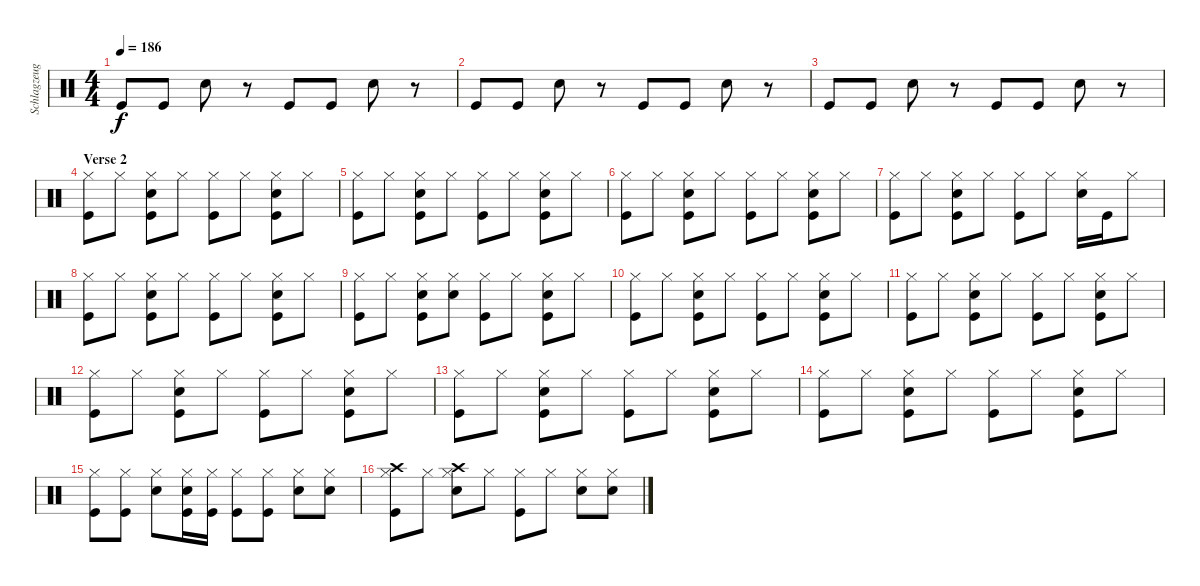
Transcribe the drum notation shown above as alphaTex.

\track ("Schlagzeug - Bela B." "Schlagzeug") {instrument percussion}
\staff {score}
\articulation defaults
\ts (4 4)
\tempo 186
\clef neutral
\ks c "Kick (hit)".8{dy f} "Kick (hit)".8 "Snare (hit) 2".8
r.8 "Kick (hit)".8 "Kick (hit)".8 "Snare (hit) 2".8 r.8 |
"Kick (hit)".8 "Kick (hit)".8 "Snare (hit) 2".8 r.8 "Kick (hit)".8 "Kick (hit)".8 "Snare (hit) 2".8 r.8 |
"Kick (hit)".8 "Kick (hit)".8 "Snare (hit) 2".8 r.8 "Kick (hit)".8 "Kick (hit)".8 "Snare (hit) 2".8 r.8 |
\section ("" "Verse 2")
("Kick (hit)" "Hi-Hat (closed)").8 "Hi-Hat (closed)".8 ("Electric Snare (hit)" "Hi-Hat (closed)" "Kick (hit)").8 "Hi-Hat (closed)".8 ("Hi-Hat (closed)" "Kick (hit)").8 "Hi-Hat (closed)".8 ("Hi-Hat (closed)" "Electric Snare (hit)" "Kick (hit)").8 "Hi-Hat (closed)".8 |
("Hi-Hat (closed)" "Kick (hit)").8 "Hi-Hat (closed)".8 ("Hi-Hat (closed)" "Electric Snare (hit)" "Kick (hit)").8 "Hi-Hat (closed)".8 ("Hi-Hat (closed)" "Kick (hit)").8 "Hi-Hat (closed)".8 ("Electric Snare (hit)" "Hi-Hat (closed)" "Kick (hit)").8 "Hi-Hat (closed)".8 |
("Hi-Hat (closed)" "Kick (hit)").8 "Hi-Hat (closed)".8 ("Hi-Hat (closed)" "Electric Snare (hit)" "Kick (hit)").8 "Hi-Hat (closed)".8 ("Kick (hit)" "Hi-Hat (closed)").8 "Hi-Hat (closed)".8 ("Hi-Hat (closed)" "Electric Snare (hit)" "Kick (hit)").8 "Hi-Hat (closed)".8 |
("Kick (hit)" "Hi-Hat (closed)").8 "Hi-Hat (closed)".8 ("Electric Snare (hit)" "Hi-Hat (closed)" "Kick (hit)").8 "Hi-Hat (closed)".8 ("Hi-Hat (closed)" "Kick (hit)").8 "Hi-Hat (closed)".8 ("Electric Snare (hit)" "Hi-Hat (closed)").16 "Kick (hit)".16 "Hi-Hat (closed)".8 |
("Kick (hit)" "Hi-Hat (closed)").8 "Hi-Hat (closed)".8 ("Electric Snare (hit)" "Hi-Hat (closed)" "Kick (hit)").8 "Hi-Hat (closed)".8 ("Kick (hit)" "Hi-Hat (closed)").8 "Hi-Hat (closed)".8 ("Electric Snare (hit)" "Hi-Hat (closed)" "Kick (hit)").8 "Hi-Hat (closed)".8 |
("Kick (hit)" "Hi-Hat (closed)").8 "Hi-Hat (closed)".8 ("Electric Snare (hit)" "Hi-Hat (closed)" "Kick (hit)").8 ("Electric Snare (hit)" "Hi-Hat (closed)").8 ("Kick (hit)" "Hi-Hat (closed)").8 "Hi-Hat (closed)".8 ("Electric Snare (hit)" "Hi-Hat (closed)" "Kick (hit)").8 "Hi-Hat (closed)".8 |
("Kick (hit)" "Hi-Hat (closed)").8 "Hi-Hat (closed)".8 ("Electric Snare (hit)" "Hi-Hat (closed)" "Kick (hit)").8 "Hi-Hat (closed)".8 ("Hi-Hat (closed)" "Kick (hit)").8 "Hi-Hat (closed)".8 ("Electric Snare (hit)" "Hi-Hat (closed)" "Kick (hit)").8 "Hi-Hat (closed)".8 |
("Hi-Hat (closed)" "Kick (hit)").8 "Hi-Hat (closed)".8 ("Hi-Hat (closed)" "Electric Snare (hit)" "Kick (hit)").8 "Hi-Hat (closed)".8 ("Kick (hit)" "Hi-Hat (closed)").8 "Hi-Hat (closed)".8 ("Electric Snare (hit)" "Hi-Hat (closed)" "Kick (hit)").8 "Hi-Hat (closed)".8 |
("Hi-Hat (closed)" "Kick (hit)").8 "Hi-Hat (closed)".8 ("Hi-Hat (closed)" "Electric Snare (hit)" "Kick (hit)").8 "Hi-Hat (closed)".8 ("Kick (hit)" "Hi-Hat (closed)").8 "Hi-Hat (closed)".8 ("Hi-Hat (closed)" "Electric Snare (hit)" "Kick (hit)").8 "Hi-Hat (closed)".8 |
("Kick (hit)" "Hi-Hat (closed)").8 "Hi-Hat (closed)".8 ("Electric Snare (hit)" "Hi-Hat (closed)" "Kick (hit)").8 "Hi-Hat (closed)".8 ("Hi-Hat (closed)" "Kick (hit)").8 "Hi-Hat (closed)".8 ("Electric Snare (hit)" "Hi-Hat (closed)" "Kick (hit)").8 "Hi-Hat (closed)".8 |
("Kick (hit)" "Hi-Hat (closed)").8 "Hi-Hat (closed)".8 ("Hi-Hat (closed)" "Electric Snare (hit)" "Kick (hit)").8 "Hi-Hat (closed)".8 ("Kick (hit)" "Hi-Hat (closed)").8 "Hi-Hat (closed)".8 ("Hi-Hat (closed)" "Electric Snare (hit)" "Kick (hit)").8 "Hi-Hat (closed)".8 |
("Hi-Hat (closed)" "Kick (hit)").8 ("Kick (hit)" "Hi-Hat (closed)").8 ("Electric Snare (hit)" "Hi-Hat (closed)").8 ("Electric Snare (hit)" "Kick (hit)" "Hi-Hat (closed)").16 ("Kick (hit)" "Hi-Hat (closed)").16 ("Kick (hit)" "Hi-Hat (closed)").8 ("Hi-Hat (closed)" "Kick (hit)").8 ("Hi-Hat (closed)" "Electric Snare (hit)").8 ("Electric Snare (hit)" "Hi-Hat (closed)").8 |
("Hi-Hat (closed)" "Crash high (hit)" "Kick (hit)").8 "Hi-Hat (closed)".8 ("Hi-Hat (closed)" "Crash high (hit)" "Electric Snare (hit)").8 "Hi-Hat (closed)".8 ("Hi-Hat (closed)" "Kick (hit)").8 "Hi-Hat (closed)".8 ("Hi-Hat (closed)" "Electric Snare (hit)").8 ("Hi-Hat (closed)" "Electric Snare (hit)").8
